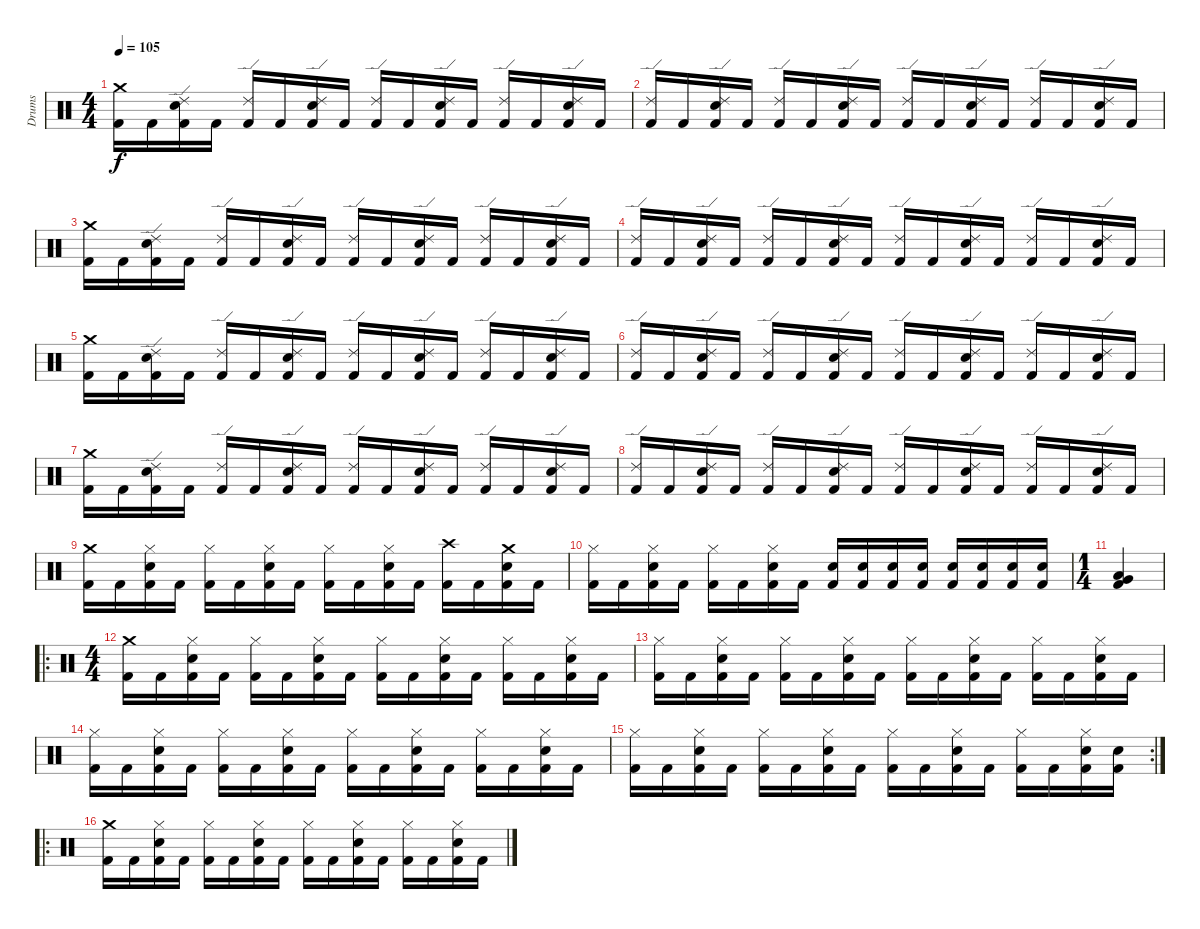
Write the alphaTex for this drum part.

\track ("Drums" "Drums") {instrument percussion}
\staff {score}
\articulation defaults
\ts (4 4)
\tempo 105
\clef neutral
\ks c
("Crash medium (hit)" "Kick (hit) 2").16{dy f} "Kick (hit) 2".16 ("Ride (edge) 2" "Electric Snare (hit)" "Kick (hit) 2").16 "Kick (hit) 2".16 ("Ride (edge) 2" "Kick (hit) 2").16 "Kick (hit) 2".16 ("Ride (edge) 2" "Electric Snare (hit)" "Kick (hit) 2").16 "Kick (hit) 2".16 ("Ride (edge) 2" "Kick (hit) 2").16 "Kick (hit) 2".16 ("Ride (edge) 2" "Electric Snare (hit)" "Kick (hit) 2").16 "Kick (hit) 2".16 ("Ride (edge) 2" "Kick (hit) 2").16 "Kick (hit) 2".16 ("Ride (edge) 2" "Electric Snare (hit)" "Kick (hit) 2").16 "Kick (hit) 2".16 |
("Ride (edge) 2" "Kick (hit) 2").16 "Kick (hit) 2".16 ("Ride (edge) 2" "Electric Snare (hit)" "Kick (hit) 2").16 "Kick (hit) 2".16 ("Ride (edge) 2" "Kick (hit) 2").16 "Kick (hit) 2".16 ("Ride (edge) 2" "Electric Snare (hit)" "Kick (hit) 2").16 "Kick (hit) 2".16 ("Ride (edge) 2" "Kick (hit) 2").16 "Kick (hit) 2".16 ("Ride (edge) 2" "Electric Snare (hit)" "Kick (hit) 2").16 "Kick (hit) 2".16 ("Ride (edge) 2" "Kick (hit) 2").16 "Kick (hit) 2".16 ("Ride (edge) 2" "Electric Snare (hit)" "Kick (hit) 2").16 "Kick (hit) 2".16 |
("Crash medium (hit)" "Kick (hit) 2").16 "Kick (hit) 2".16 ("Ride (edge) 2" "Electric Snare (hit)" "Kick (hit) 2").16 "Kick (hit) 2".16 ("Ride (edge) 2" "Kick (hit) 2").16 "Kick (hit) 2".16 ("Ride (edge) 2" "Electric Snare (hit)" "Kick (hit) 2").16 "Kick (hit) 2".16 ("Ride (edge) 2" "Kick (hit) 2").16 "Kick (hit) 2".16 ("Ride (edge) 2" "Electric Snare (hit)" "Kick (hit) 2").16 "Kick (hit) 2".16 ("Ride (edge) 2" "Kick (hit) 2").16 "Kick (hit) 2".16 ("Ride (edge) 2" "Electric Snare (hit)" "Kick (hit) 2").16 "Kick (hit) 2".16 |
("Ride (edge) 2" "Kick (hit) 2").16 "Kick (hit) 2".16 ("Ride (edge) 2" "Electric Snare (hit)" "Kick (hit) 2").16 "Kick (hit) 2".16 ("Ride (edge) 2" "Kick (hit) 2").16 "Kick (hit) 2".16 ("Ride (edge) 2" "Electric Snare (hit)" "Kick (hit) 2").16 "Kick (hit) 2".16 ("Ride (edge) 2" "Kick (hit) 2").16 "Kick (hit) 2".16 ("Ride (edge) 2" "Electric Snare (hit)" "Kick (hit) 2").16 "Kick (hit) 2".16 ("Ride (edge) 2" "Kick (hit) 2").16 "Kick (hit) 2".16 ("Ride (edge) 2" "Electric Snare (hit)" "Kick (hit) 2").16 "Kick (hit) 2".16 |
("Crash medium (hit)" "Kick (hit) 2").16 "Kick (hit) 2".16 ("Ride (edge) 2" "Electric Snare (hit)" "Kick (hit) 2").16 "Kick (hit) 2".16 ("Ride (edge) 2" "Kick (hit) 2").16 "Kick (hit) 2".16 ("Ride (edge) 2" "Electric Snare (hit)" "Kick (hit) 2").16 "Kick (hit) 2".16 ("Ride (edge) 2" "Kick (hit) 2").16 "Kick (hit) 2".16 ("Ride (edge) 2" "Electric Snare (hit)" "Kick (hit) 2").16 "Kick (hit) 2".16 ("Ride (edge) 2" "Kick (hit) 2").16 "Kick (hit) 2".16 ("Ride (edge) 2" "Electric Snare (hit)" "Kick (hit) 2").16 "Kick (hit) 2".16 |
("Ride (edge) 2" "Kick (hit) 2").16 "Kick (hit) 2".16 ("Ride (edge) 2" "Electric Snare (hit)" "Kick (hit) 2").16 "Kick (hit) 2".16 ("Ride (edge) 2" "Kick (hit) 2").16 "Kick (hit) 2".16 ("Ride (edge) 2" "Electric Snare (hit)" "Kick (hit) 2").16 "Kick (hit) 2".16 ("Ride (edge) 2" "Kick (hit) 2").16 "Kick (hit) 2".16 ("Ride (edge) 2" "Electric Snare (hit)" "Kick (hit) 2").16 "Kick (hit) 2".16 ("Ride (edge) 2" "Kick (hit) 2").16 "Kick (hit) 2".16 ("Ride (edge) 2" "Electric Snare (hit)" "Kick (hit) 2").16 "Kick (hit) 2".16 |
("Crash medium (hit)" "Kick (hit) 2").16 "Kick (hit) 2".16 ("Ride (edge) 2" "Electric Snare (hit)" "Kick (hit) 2").16 "Kick (hit) 2".16 ("Ride (edge) 2" "Kick (hit) 2").16 "Kick (hit) 2".16 ("Ride (edge) 2" "Electric Snare (hit)" "Kick (hit) 2").16 "Kick (hit) 2".16 ("Ride (edge) 2" "Kick (hit) 2").16 "Kick (hit) 2".16 ("Ride (edge) 2" "Electric Snare (hit)" "Kick (hit) 2").16 "Kick (hit) 2".16 ("Ride (edge) 2" "Kick (hit) 2").16 "Kick (hit) 2".16 ("Ride (edge) 2" "Electric Snare (hit)" "Kick (hit) 2").16 "Kick (hit) 2".16 |
("Ride (edge) 2" "Kick (hit) 2").16 "Kick (hit) 2".16 ("Ride (edge) 2" "Electric Snare (hit)" "Kick (hit) 2").16 "Kick (hit) 2".16 ("Ride (edge) 2" "Kick (hit) 2").16 "Kick (hit) 2".16 ("Ride (edge) 2" "Electric Snare (hit)" "Kick (hit) 2").16 "Kick (hit) 2".16 ("Ride (edge) 2" "Kick (hit) 2").16 "Kick (hit) 2".16 ("Ride (edge) 2" "Electric Snare (hit)" "Kick (hit) 2").16 "Kick (hit) 2".16 ("Ride (edge) 2" "Kick (hit) 2").16 "Kick (hit) 2".16 ("Ride (edge) 2" "Electric Snare (hit)" "Kick (hit) 2").16 "Kick (hit) 2".16 |
("Crash medium (hit)" "Kick (hit) 2").16 "Kick (hit) 2".16 ("Hi-Hat (closed)" "Electric Snare (hit)" "Kick (hit) 2").16 "Kick (hit) 2".16 ("Hi-Hat (closed)" "Kick (hit) 2").16 "Kick (hit) 2".16 ("Hi-Hat (closed)" "Electric Snare (hit)" "Kick (hit) 2").16 "Kick (hit) 2".16 ("Hi-Hat (closed)" "Kick (hit) 2").16 "Kick (hit) 2".16 ("Hi-Hat (closed)" "Electric Snare (hit)" "Kick (hit) 2").16 "Kick (hit) 2".16 ("Crash high (hit)" "Kick (hit) 2").16 "Kick (hit) 2".16 ("Crash medium (hit)" "Electric Snare (hit)" "Kick (hit) 2").16 "Kick (hit) 2".16 |
("Hi-Hat (closed)" "Kick (hit) 2").16 "Kick (hit) 2".16 ("Hi-Hat (closed)" "Electric Snare (hit)" "Kick (hit) 2").16 "Kick (hit) 2".16 ("Hi-Hat (closed)" "Kick (hit) 2").16 "Kick (hit) 2".16 ("Hi-Hat (closed)" "Electric Snare (hit)" "Kick (hit) 2").16 "Kick (hit) 2".16 ("Electric Snare (hit)" "Kick (hit) 2").16 ("Electric Snare (hit)" "Kick (hit) 2").16 ("Electric Snare (hit)" "Kick (hit) 2").16 ("Electric Snare (hit)" "Kick (hit) 2").16 ("Electric Snare (hit)" "Kick (hit) 2").16 ("Electric Snare (hit)" "Kick (hit) 2").16 ("Electric Snare (hit)" "Kick (hit) 2").16 ("Electric Snare (hit)" "Kick (hit) 2").16 |
\ts (1 4)
("Very Low Tom (hit)" "Low Tom (hit)" "Kick (hit) 2").4 |
\ro
\ts (4 4)
("Crash medium (hit)" "Kick (hit) 2").16 "Kick (hit) 2".16 ("Hi-Hat (closed)" "Electric Snare (hit)" "Kick (hit) 2").16 "Kick (hit) 2".16 ("Hi-Hat (closed)" "Kick (hit) 2").16 "Kick (hit) 2".16 ("Hi-Hat (closed)" "Electric Snare (hit)" "Kick (hit) 2").16 "Kick (hit) 2".16 ("Hi-Hat (closed)" "Kick (hit) 2").16 "Kick (hit) 2".16 ("Hi-Hat (closed)" "Electric Snare (hit)" "Kick (hit) 2").16 "Kick (hit) 2".16 ("Hi-Hat (closed)" "Kick (hit) 2").16 "Kick (hit) 2".16 ("Hi-Hat (closed)" "Electric Snare (hit)" "Kick (hit) 2").16 "Kick (hit) 2".16 |
("Hi-Hat (closed)" "Kick (hit) 2").16 "Kick (hit) 2".16 ("Hi-Hat (closed)" "Electric Snare (hit)" "Kick (hit) 2").16 "Kick (hit) 2".16 ("Hi-Hat (closed)" "Kick (hit) 2").16 "Kick (hit) 2".16 ("Hi-Hat (closed)" "Electric Snare (hit)" "Kick (hit) 2").16 "Kick (hit) 2".16 ("Hi-Hat (closed)" "Kick (hit) 2").16 "Kick (hit) 2".16 ("Hi-Hat (closed)" "Electric Snare (hit)" "Kick (hit) 2").16 "Kick (hit) 2".16 ("Hi-Hat (closed)" "Kick (hit) 2").16 "Kick (hit) 2".16 ("Hi-Hat (closed)" "Electric Snare (hit)" "Kick (hit) 2").16 "Kick (hit) 2".16 |
("Hi-Hat (closed)" "Kick (hit) 2").16 "Kick (hit) 2".16 ("Hi-Hat (closed)" "Electric Snare (hit)" "Kick (hit) 2").16 "Kick (hit) 2".16 ("Hi-Hat (closed)" "Kick (hit) 2").16 "Kick (hit) 2".16 ("Hi-Hat (closed)" "Electric Snare (hit)" "Kick (hit) 2").16 "Kick (hit) 2".16 ("Hi-Hat (closed)" "Kick (hit) 2").16 "Kick (hit) 2".16 ("Hi-Hat (closed)" "Electric Snare (hit)" "Kick (hit) 2").16 "Kick (hit) 2".16 ("Hi-Hat (closed)" "Kick (hit) 2").16 "Kick (hit) 2".16 ("Hi-Hat (closed)" "Electric Snare (hit)" "Kick (hit) 2").16 "Kick (hit) 2".16 |
\rc 2
("Hi-Hat (closed)" "Kick (hit) 2").16 "Kick (hit) 2".16 ("Hi-Hat (closed)" "Electric Snare (hit)" "Kick (hit) 2").16 "Kick (hit) 2".16 ("Hi-Hat (closed)" "Kick (hit) 2").16 "Kick (hit) 2".16 ("Hi-Hat (closed)" "Electric Snare (hit)" "Kick (hit) 2").16 "Kick (hit) 2".16 ("Hi-Hat (closed)" "Kick (hit) 2").16 "Kick (hit) 2".16 ("Hi-Hat (closed)" "Electric Snare (hit)" "Kick (hit) 2").16 "Kick (hit) 2".16 ("Hi-Hat (closed)" "Kick (hit) 2").16 "Kick (hit) 2".16 ("Hi-Hat (closed)" "Electric Snare (hit)" "Kick (hit) 2").16 ("Electric Snare (hit)" "Kick (hit) 2").16 |
\ro
("Crash medium (hit)" "Kick (hit) 2").16 "Kick (hit) 2".16 ("Hi-Hat (closed)" "Electric Snare (hit)" "Kick (hit) 2").16 "Kick (hit) 2".16 ("Hi-Hat (closed)" "Kick (hit) 2").16 "Kick (hit) 2".16 ("Hi-Hat (closed)" "Electric Snare (hit)" "Kick (hit) 2").16 "Kick (hit) 2".16 ("Hi-Hat (closed)" "Kick (hit) 2").16 "Kick (hit) 2".16 ("Hi-Hat (closed)" "Electric Snare (hit)" "Kick (hit) 2").16 "Kick (hit) 2".16 ("Hi-Hat (closed)" "Kick (hit) 2").16 "Kick (hit) 2".16 ("Hi-Hat (closed)" "Electric Snare (hit)" "Kick (hit) 2").16 "Kick (hit) 2".16
